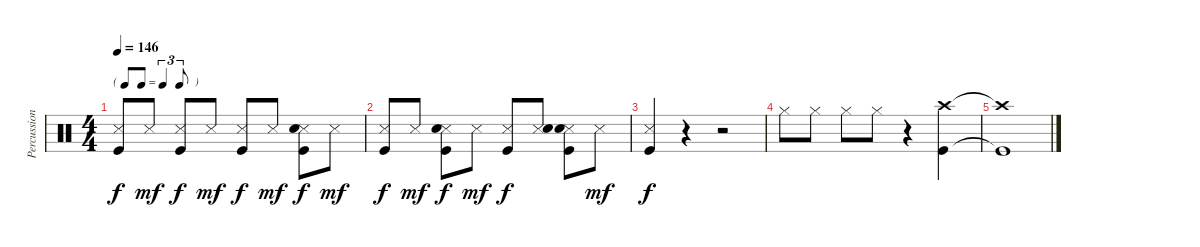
\track ("Percussion" "Percussion") {instrument percussion}
\staff {score}
\articulation defaults
\ts (4 4)
\tf triplet8th
\tempo 146
\clef neutral
\ks c
("Snare (side stick) 3" "Kick (hit)").8{dy f} "Snare (side stick) 3".8{dy mf} ("Snare (side stick) 3" "Kick (hit)").8{dy f} "Snare (side stick) 3".8{dy mf} ("Snare (side stick) 3" "Kick (hit)").8{dy f} "Snare (side stick) 3".8{dy mf} ("Snare (side stick) 3" "Snare (hit) 2" "Kick (hit)").8{dy f} "Snare (side stick) 3".8{dy mf} |
("Snare (side stick) 3" "Kick (hit)").8{dy f} "Snare (side stick) 3".8{dy mf} ("Snare (side stick) 3" "Snare (hit) 2" "Kick (hit)").8{dy f} "Snare (side stick) 3".8{dy mf} ("Snare (side stick) 3" "Kick (hit)").8{dy f} ("Snare (side stick) 3" "Snare (hit) 2").8 ("Snare (side stick) 3" "Snare (hit) 2" "Kick (hit)").8 "Snare (side stick) 3".8{dy mf} |
("Snare (side stick) 3" "Kick (hit)").4{dy f} r.4 r.2 |
"Hi-Hat (closed)".8 "Hi-Hat (closed)".8 "Hi-Hat (closed)".8 "Hi-Hat (closed)".8 r.4 ("Crash high (hit)" "Kick (hit)").4 |
("Crash high (hit)"{t} "Kick (hit)"{t}).1
